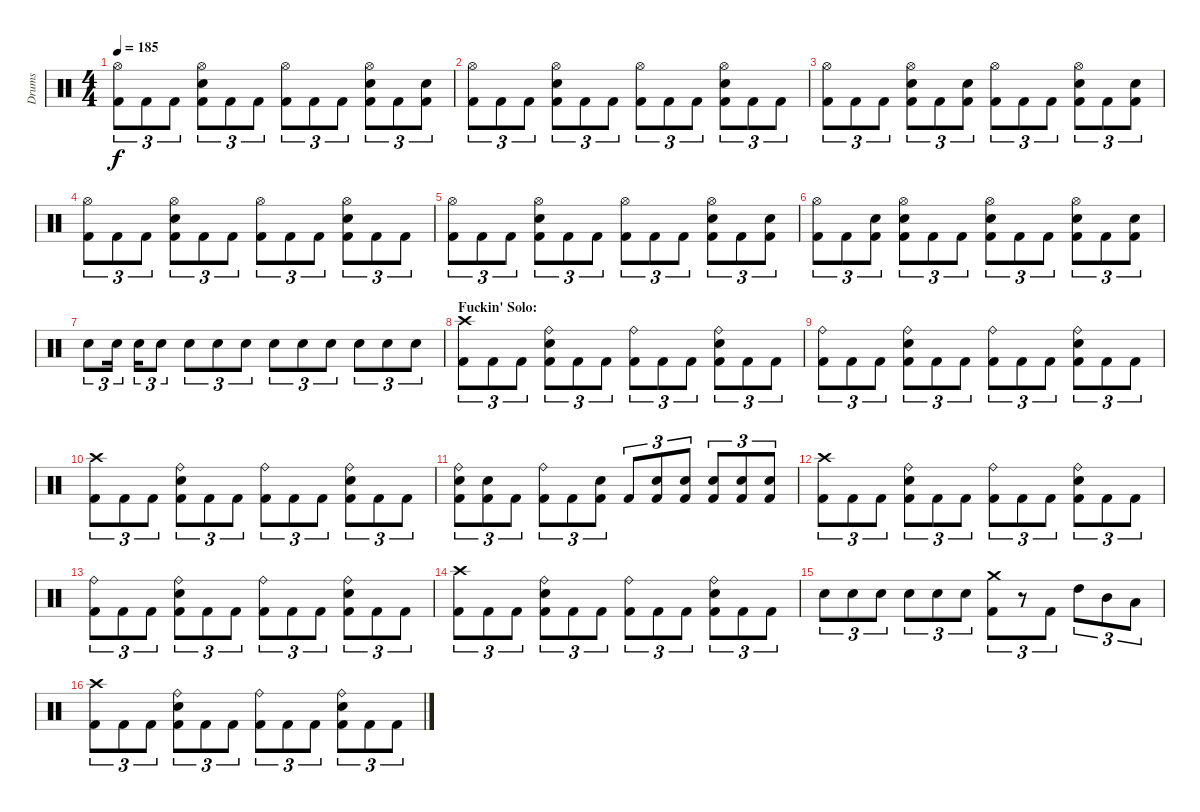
\track ("Drums" "Drums") {instrument percussion}
\staff {score}
\articulation defaults
\ts (4 4)
\tempo 185
\clef neutral
\ks c
("Hi-Hat (open)" "Kick (hit) 2").8{tu (3 2) dy f} "Kick (hit) 2".8{tu (3 2)} "Kick (hit) 2".8{tu (3 2)} ("Hi-Hat (open)" "Electric Snare (hit)" "Kick (hit) 2").8{tu (3 2)} "Kick (hit) 2".8{tu (3 2)} "Kick (hit) 2".8{tu (3 2)} ("Hi-Hat (open)" "Kick (hit) 2").8{tu (3 2)} "Kick (hit) 2".8{tu (3 2)} "Kick (hit) 2".8{tu (3 2)} ("Hi-Hat (open)" "Electric Snare (hit)" "Kick (hit) 2").8{tu (3 2)} "Kick (hit) 2".8{tu (3 2)} ("Electric Snare (hit)" "Kick (hit) 2").8{tu (3 2)} |
("Hi-Hat (open)" "Kick (hit) 2").8{tu (3 2)} "Kick (hit) 2".8{tu (3 2)} "Kick (hit) 2".8{tu (3 2)} ("Hi-Hat (open)" "Electric Snare (hit)" "Kick (hit) 2").8{tu (3 2)} "Kick (hit) 2".8{tu (3 2)} "Kick (hit) 2".8{tu (3 2)} ("Hi-Hat (open)" "Kick (hit) 2").8{tu (3 2)} "Kick (hit) 2".8{tu (3 2)} "Kick (hit) 2".8{tu (3 2)} ("Hi-Hat (open)" "Electric Snare (hit)" "Kick (hit) 2").8{tu (3 2)} "Kick (hit) 2".8{tu (3 2)} "Kick (hit) 2".8{tu (3 2)} |
("Hi-Hat (open)" "Kick (hit) 2").8{tu (3 2)} "Kick (hit) 2".8{tu (3 2)} "Kick (hit) 2".8{tu (3 2)} ("Hi-Hat (open)" "Electric Snare (hit)" "Kick (hit) 2").8{tu (3 2)} "Kick (hit) 2".8{tu (3 2)} ("Electric Snare (hit)" "Kick (hit) 2").8{tu (3 2)} ("Hi-Hat (open)" "Kick (hit) 2").8{tu (3 2)} "Kick (hit) 2".8{tu (3 2)} "Kick (hit) 2".8{tu (3 2)} ("Hi-Hat (open)" "Electric Snare (hit)" "Kick (hit) 2").8{tu (3 2)} "Kick (hit) 2".8{tu (3 2)} ("Electric Snare (hit)" "Kick (hit) 2").8{tu (3 2)} |
("Hi-Hat (open)" "Kick (hit) 2").8{tu (3 2)} "Kick (hit) 2".8{tu (3 2)} "Kick (hit) 2".8{tu (3 2)} ("Hi-Hat (open)" "Electric Snare (hit)" "Kick (hit) 2").8{tu (3 2)} "Kick (hit) 2".8{tu (3 2)} "Kick (hit) 2".8{tu (3 2)} ("Hi-Hat (open)" "Kick (hit) 2").8{tu (3 2)} "Kick (hit) 2".8{tu (3 2)} "Kick (hit) 2".8{tu (3 2)} ("Hi-Hat (open)" "Electric Snare (hit)" "Kick (hit) 2").8{tu (3 2)} "Kick (hit) 2".8{tu (3 2)} "Kick (hit) 2".8{tu (3 2)} |
("Hi-Hat (open)" "Kick (hit) 2").8{tu (3 2)} "Kick (hit) 2".8{tu (3 2)} "Kick (hit) 2".8{tu (3 2)} ("Hi-Hat (open)" "Electric Snare (hit)" "Kick (hit) 2").8{tu (3 2)} "Kick (hit) 2".8{tu (3 2)} "Kick (hit) 2".8{tu (3 2)} ("Hi-Hat (open)" "Kick (hit) 2").8{tu (3 2)} "Kick (hit) 2".8{tu (3 2)} "Kick (hit) 2".8{tu (3 2)} ("Hi-Hat (open)" "Electric Snare (hit)" "Kick (hit) 2").8{tu (3 2)} "Kick (hit) 2".8{tu (3 2)} ("Electric Snare (hit)" "Kick (hit) 2").8{tu (3 2)} |
("Hi-Hat (open)" "Kick (hit) 2").8{tu (3 2)} "Kick (hit) 2".8{tu (3 2)} ("Electric Snare (hit)" "Kick (hit) 2").8{tu (3 2)} ("Hi-Hat (open)" "Electric Snare (hit)" "Kick (hit) 2").8{tu (3 2)} "Kick (hit) 2".8{tu (3 2)} "Kick (hit) 2".8{tu (3 2)} ("Hi-Hat (open)" "Electric Snare (hit)" "Kick (hit) 2").8{tu (3 2)} "Kick (hit) 2".8{tu (3 2)} "Kick (hit) 2".8{tu (3 2)} ("Hi-Hat (open)" "Electric Snare (hit)" "Kick (hit) 2").8{tu (3 2)} "Kick (hit) 2".8{tu (3 2)} ("Electric Snare (hit)" "Kick (hit) 2").8{tu (3 2)} |
"Electric Snare (hit)".8{tu (3 2)} "Electric Snare (hit)".16{tu (3 2)} "Electric Snare (hit)".16{tu (3 2)} "Electric Snare (hit)".8{tu (3 2)} "Electric Snare (hit)".8{tu (3 2)} "Electric Snare (hit)".8{tu (3 2)} "Electric Snare (hit)".8{tu (3 2)} "Electric Snare (hit)".8{tu (3 2)} "Electric Snare (hit)".8{tu (3 2)} "Electric Snare (hit)".8{tu (3 2)} "Electric Snare (hit)".8{tu (3 2)} "Electric Snare (hit)".8{tu (3 2)} "Electric Snare (hit)".8{tu (3 2)} |
\section ("" "Fuckin' Solo:")
("Crash high (hit)" "Kick (hit) 2").8{tu (3 2)} "Kick (hit) 2".8{tu (3 2)} "Kick (hit) 2".8{tu (3 2)} ("Ride (bell)" "Electric Snare (hit)" "Kick (hit) 2").8{tu (3 2)} "Kick (hit) 2".8{tu (3 2)} "Kick (hit) 2".8{tu (3 2)} ("Ride (bell)" "Kick (hit) 2").8{tu (3 2)} "Kick (hit) 2".8{tu (3 2)} "Kick (hit) 2".8{tu (3 2)} ("Ride (bell)" "Electric Snare (hit)" "Kick (hit) 2").8{tu (3 2)} "Kick (hit) 2".8{tu (3 2)} "Kick (hit) 2".8{tu (3 2)} |
("Ride (bell)" "Kick (hit) 2").8{tu (3 2)} "Kick (hit) 2".8{tu (3 2)} "Kick (hit) 2".8{tu (3 2)} ("Ride (bell)" "Electric Snare (hit)" "Kick (hit) 2").8{tu (3 2)} "Kick (hit) 2".8{tu (3 2)} "Kick (hit) 2".8{tu (3 2)} ("Ride (bell)" "Kick (hit) 2").8{tu (3 2)} "Kick (hit) 2".8{tu (3 2)} "Kick (hit) 2".8{tu (3 2)} ("Ride (bell)" "Electric Snare (hit)" "Kick (hit) 2").8{tu (3 2)} "Kick (hit) 2".8{tu (3 2)} "Kick (hit) 2".8{tu (3 2)} |
("Crash high (hit)" "Kick (hit) 2").8{tu (3 2)} "Kick (hit) 2".8{tu (3 2)} "Kick (hit) 2".8{tu (3 2)} ("Ride (bell)" "Electric Snare (hit)" "Kick (hit) 2").8{tu (3 2)} "Kick (hit) 2".8{tu (3 2)} "Kick (hit) 2".8{tu (3 2)} ("Ride (bell)" "Kick (hit) 2").8{tu (3 2)} "Kick (hit) 2".8{tu (3 2)} "Kick (hit) 2".8{tu (3 2)} ("Ride (bell)" "Electric Snare (hit)" "Kick (hit) 2").8{tu (3 2)} "Kick (hit) 2".8{tu (3 2)} "Kick (hit) 2".8{tu (3 2)} |
("Ride (bell)" "Electric Snare (hit)" "Kick (hit) 2").8{tu (3 2)} ("Electric Snare (hit)" "Kick (hit) 2").8{tu (3 2)} "Kick (hit) 2".8{tu (3 2)} ("Ride (bell)" "Kick (hit) 2").8{tu (3 2)} "Kick (hit) 2".8{tu (3 2)} ("Electric Snare (hit)" "Kick (hit) 2").8{tu (3 2)} "Kick (hit) 2".8{tu (3 2)} ("Electric Snare (hit)" "Kick (hit) 2").8{tu (3 2)} ("Electric Snare (hit)" "Kick (hit) 2").8{tu (3 2)} ("Electric Snare (hit)" "Kick (hit) 2").8{tu (3 2)} ("Electric Snare (hit)" "Kick (hit) 2").8{tu (3 2)} ("Electric Snare (hit)" "Kick (hit) 2").8{tu (3 2)} |
("Crash high (hit)" "Kick (hit) 2").8{tu (3 2)} "Kick (hit) 2".8{tu (3 2)} "Kick (hit) 2".8{tu (3 2)} ("Ride (bell)" "Electric Snare (hit)" "Kick (hit) 2").8{tu (3 2)} "Kick (hit) 2".8{tu (3 2)} "Kick (hit) 2".8{tu (3 2)} ("Ride (bell)" "Kick (hit) 2").8{tu (3 2)} "Kick (hit) 2".8{tu (3 2)} "Kick (hit) 2".8{tu (3 2)} ("Ride (bell)" "Electric Snare (hit)" "Kick (hit) 2").8{tu (3 2)} "Kick (hit) 2".8{tu (3 2)} "Kick (hit) 2".8{tu (3 2)} |
("Ride (bell)" "Kick (hit) 2").8{tu (3 2)} "Kick (hit) 2".8{tu (3 2)} "Kick (hit) 2".8{tu (3 2)} ("Ride (bell)" "Electric Snare (hit)" "Kick (hit) 2").8{tu (3 2)} "Kick (hit) 2".8{tu (3 2)} "Kick (hit) 2".8{tu (3 2)} ("Ride (bell)" "Kick (hit) 2").8{tu (3 2)} "Kick (hit) 2".8{tu (3 2)} "Kick (hit) 2".8{tu (3 2)} ("Ride (bell)" "Electric Snare (hit)" "Kick (hit) 2").8{tu (3 2)} "Kick (hit) 2".8{tu (3 2)} "Kick (hit) 2".8{tu (3 2)} |
("Crash high (hit)" "Kick (hit) 2").8{tu (3 2)} "Kick (hit) 2".8{tu (3 2)} "Kick (hit) 2".8{tu (3 2)} ("Ride (bell)" "Electric Snare (hit)" "Kick (hit) 2").8{tu (3 2)} "Kick (hit) 2".8{tu (3 2)} "Kick (hit) 2".8{tu (3 2)} ("Ride (bell)" "Kick (hit) 2").8{tu (3 2)} "Kick (hit) 2".8{tu (3 2)} "Kick (hit) 2".8{tu (3 2)} ("Ride (bell)" "Electric Snare (hit)" "Kick (hit) 2").8{tu (3 2)} "Kick (hit) 2".8{tu (3 2)} "Kick (hit) 2".8{tu (3 2)} |
"Electric Snare (hit)".8{tu (3 2)} "Electric Snare (hit)".8{tu (3 2)} "Electric Snare (hit)".8{tu (3 2)} "Electric Snare (hit)".8{tu (3 2)} "Electric Snare (hit)".8{tu (3 2)} "Electric Snare (hit)".8{tu (3 2)} ("Crash medium (hit)" "Kick (hit) 2").8{tu (3 2)} r.8{tu (3 2)} "Kick (hit) 2".8{tu (3 2)} "High Tom (hit)".8{tu (3 2)} "Mid Tom (hit)".8{tu (3 2)} "Low Tom (hit)".8{tu (3 2)} |
("Crash high (hit)" "Kick (hit) 2").8{tu (3 2)} "Kick (hit) 2".8{tu (3 2)} "Kick (hit) 2".8{tu (3 2)} ("Ride (bell)" "Electric Snare (hit)" "Kick (hit) 2").8{tu (3 2)} "Kick (hit) 2".8{tu (3 2)} "Kick (hit) 2".8{tu (3 2)} ("Ride (bell)" "Kick (hit) 2").8{tu (3 2)} "Kick (hit) 2".8{tu (3 2)} "Kick (hit) 2".8{tu (3 2)} ("Ride (bell)" "Electric Snare (hit)" "Kick (hit) 2").8{tu (3 2)} "Kick (hit) 2".8{tu (3 2)} "Kick (hit) 2".8{tu (3 2)}
